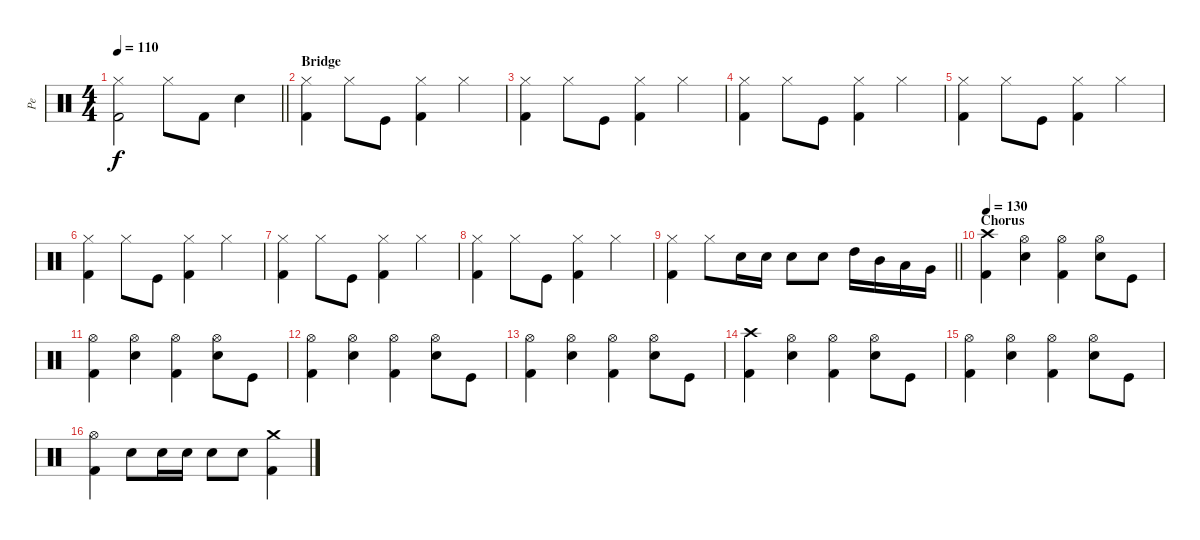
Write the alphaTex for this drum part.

\track ("Pe" "Pe") {instrument percussion}
\staff {score}
\articulation defaults
\ts (4 4)
\tempo 110
\clef neutral
\barLineRight lightlight
\ks c
("Kick (hit) 2" "Hi-Hat (closed)").2{dy f} "Hi-Hat (closed)".8 "Kick (hit) 2".8 "Electric Snare (hit)".4 |
\section ("" "Bridge")
("Kick (hit) 2" "Hi-Hat (closed)").4 "Hi-Hat (closed)".8 "Kick (hit)".8 ("Kick (hit) 2" "Hi-Hat (closed)").4 "Hi-Hat (closed)".4 |
("Kick (hit) 2" "Hi-Hat (closed)").4 "Hi-Hat (closed)".8 "Kick (hit)".8 ("Kick (hit) 2" "Hi-Hat (closed)").4 "Hi-Hat (closed)".4 |
("Kick (hit) 2" "Hi-Hat (closed)").4 "Hi-Hat (closed)".8 "Kick (hit)".8 ("Kick (hit) 2" "Hi-Hat (closed)").4 "Hi-Hat (closed)".4 |
("Kick (hit) 2" "Hi-Hat (closed)").4 "Hi-Hat (closed)".8 "Kick (hit)".8 ("Kick (hit) 2" "Hi-Hat (closed)").4 "Hi-Hat (closed)".4 |
("Kick (hit) 2" "Hi-Hat (closed)").4 "Hi-Hat (closed)".8 "Kick (hit)".8 ("Kick (hit) 2" "Hi-Hat (closed)").4 "Hi-Hat (closed)".4 |
("Kick (hit) 2" "Hi-Hat (closed)").4 "Hi-Hat (closed)".8 "Kick (hit)".8 ("Kick (hit) 2" "Hi-Hat (closed)").4 "Hi-Hat (closed)".4 |
("Kick (hit) 2" "Hi-Hat (closed)").4 "Hi-Hat (closed)".8 "Kick (hit)".8 ("Kick (hit) 2" "Hi-Hat (closed)").4 "Hi-Hat (closed)".4 |
\barLineRight lightlight
("Kick (hit) 2" "Hi-Hat (closed)").4 "Hi-Hat (closed)".8 "Electric Snare (hit)".16 "Electric Snare (hit)".16 "Electric Snare (hit)".8 "Electric Snare (hit)".8 "High Tom (hit)".16 "Mid Tom (hit)".16 "Low Tom (hit)".16 "Very Low Tom (hit)".16 |
\section ("" "Chorus")
\tempo 130
("Kick (hit) 2" "Crash high (hit)").4 ("Electric Snare (hit)" "Hi-Hat (open)").4 ("Kick (hit) 2" "Hi-Hat (open)").4 ("Electric Snare (hit)" "Hi-Hat (open)").8 "Kick (hit)".8 |
("Kick (hit) 2" "Hi-Hat (open)").4 ("Electric Snare (hit)" "Hi-Hat (open)").4 ("Kick (hit) 2" "Hi-Hat (open)").4 ("Electric Snare (hit)" "Hi-Hat (open)").8 "Kick (hit)".8 |
("Kick (hit) 2" "Hi-Hat (open)").4 ("Electric Snare (hit)" "Hi-Hat (open)").4 ("Kick (hit) 2" "Hi-Hat (open)").4 ("Electric Snare (hit)" "Hi-Hat (open)").8 "Kick (hit)".8 |
("Kick (hit) 2" "Hi-Hat (open)").4 ("Electric Snare (hit)" "Hi-Hat (open)").4 ("Kick (hit) 2" "Hi-Hat (open)").4 ("Electric Snare (hit)" "Hi-Hat (open)").8 "Kick (hit)".8 |
("Kick (hit) 2" "Crash high (hit)").4 ("Electric Snare (hit)" "Hi-Hat (open)").4 ("Kick (hit) 2" "Hi-Hat (open)").4 ("Electric Snare (hit)" "Hi-Hat (open)").8 "Kick (hit)".8 |
("Kick (hit) 2" "Hi-Hat (open)").4 ("Electric Snare (hit)" "Hi-Hat (open)").4 ("Kick (hit) 2" "Hi-Hat (open)").4 ("Electric Snare (hit)" "Hi-Hat (open)").8 "Kick (hit)".8 |
("Kick (hit) 2" "Hi-Hat (open)").4 "Electric Snare (hit)".8 "Electric Snare (hit)".16 "Electric Snare (hit)".16 "Electric Snare (hit)".8 "Electric Snare (hit)".8 ("Kick (hit) 2" "Crash medium (hit)").4
